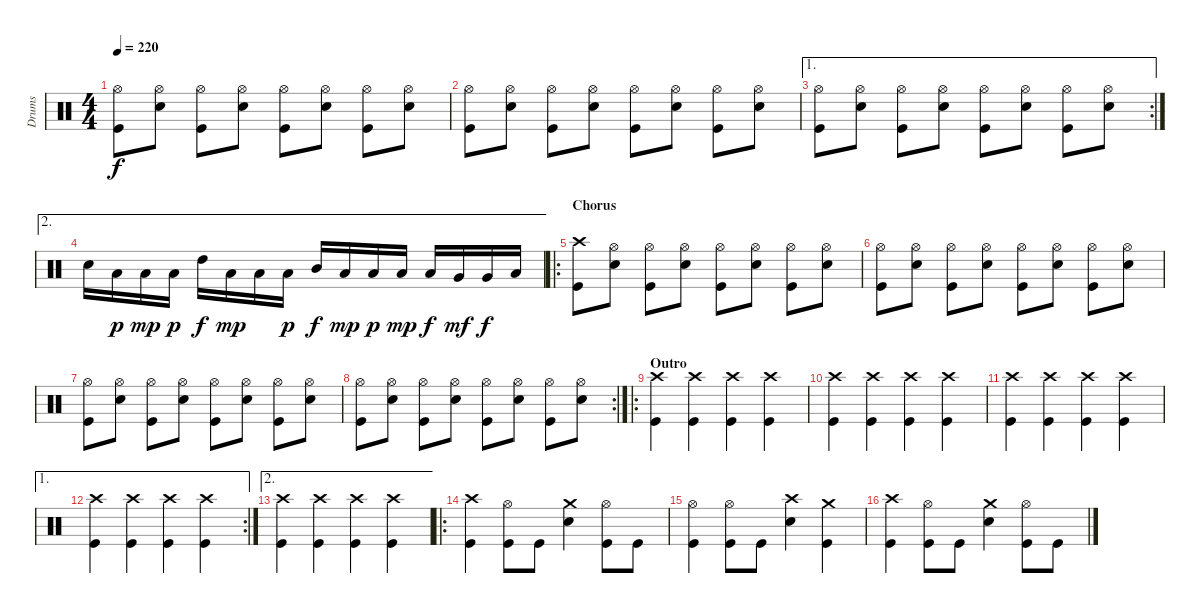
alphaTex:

\track ("Drums" "Drums") {instrument percussion}
\staff {score}
\articulation defaults
\ts (4 4)
\tempo 220
\clef neutral
\ks c
("Hi-Hat (open)" "Kick (hit)").8{dy f} ("Hi-Hat (open)" "Snare (hit) 2").8 ("Hi-Hat (open)" "Kick (hit)").8 ("Hi-Hat (open)" "Snare (hit) 2").8 ("Hi-Hat (open)" "Kick (hit)").8 ("Hi-Hat (open)" "Snare (hit) 2").8 ("Hi-Hat (open)" "Kick (hit)").8 ("Hi-Hat (open)" "Snare (hit) 2").8 |
("Hi-Hat (open)" "Kick (hit)").8 ("Hi-Hat (open)" "Snare (hit) 2").8 ("Hi-Hat (open)" "Kick (hit)").8 ("Hi-Hat (open)" "Snare (hit) 2").8 ("Hi-Hat (open)" "Kick (hit)").8 ("Hi-Hat (open)" "Snare (hit) 2").8 ("Hi-Hat (open)" "Kick (hit)").8 ("Hi-Hat (open)" "Snare (hit) 2").8 |
\ae 1
\rc 2
("Hi-Hat (open)" "Kick (hit)").8 ("Hi-Hat (open)" "Snare (hit) 2").8 ("Hi-Hat (open)" "Kick (hit)").8 ("Hi-Hat (open)" "Snare (hit) 2").8 ("Hi-Hat (open)" "Kick (hit)").8 ("Hi-Hat (open)" "Snare (hit) 2").8 ("Hi-Hat (open)" "Kick (hit)").8 ("Hi-Hat (open)" "Snare (hit) 2").8 |
\ae 2 "Snare (hit) 2".16 "Low Tom (hit)".16{dy p} "Low Tom (hit)".16{dy mp} "Low Tom (hit)".16{dy p} "High Tom (hit)".16{dy f} "Low Tom (hit)".16{dy mp} "Low Tom (hit)".16 "Low Tom (hit)".16{dy p} "Mid Tom (hit)".16{dy f} "Low Tom (hit)".16{dy mp} "Low Tom (hit)".16{dy p} "Low Tom (hit)".16{dy mp} "Low Tom (hit)".16{dy f} "Very Low Tom (hit)".16{dy mf} "Very Low Tom (hit)".16{dy f} "Low Floor Tom (hit)".16
|
\ro
\section ("" "Chorus")
("Crash high (hit)" "Kick (hit)").8 ("Hi-Hat (open)" "Snare (hit) 2").8 ("Hi-Hat (open)" "Kick (hit)").8 ("Hi-Hat (open)" "Snare (hit) 2").8 ("Hi-Hat (open)" "Kick (hit)").8 ("Hi-Hat (open)" "Snare (hit) 2").8 ("Hi-Hat (open)" "Kick (hit)").8 ("Hi-Hat (open)" "Snare (hit) 2").8 |
("Hi-Hat (open)" "Kick (hit)").8 ("Hi-Hat (open)" "Snare (hit) 2").8 ("Hi-Hat (open)" "Kick (hit)").8 ("Hi-Hat (open)" "Snare (hit) 2").8 ("Hi-Hat (open)" "Kick (hit)").8 ("Hi-Hat (open)" "Snare (hit) 2").8 ("Hi-Hat (open)" "Kick (hit)").8 ("Hi-Hat (open)" "Snare (hit) 2").8 |
("Hi-Hat (open)" "Kick (hit)").8 ("Hi-Hat (open)" "Snare (hit) 2").8 ("Hi-Hat (open)" "Kick (hit)").8 ("Hi-Hat (open)" "Snare (hit) 2").8 ("Hi-Hat (open)" "Kick (hit)").8 ("Hi-Hat (open)" "Snare (hit) 2").8 ("Hi-Hat (open)" "Kick (hit)").8 ("Hi-Hat (open)" "Snare (hit) 2").8 |
\rc 2
("Hi-Hat (open)" "Kick (hit)").8 ("Hi-Hat (open)" "Snare (hit) 2").8 ("Hi-Hat (open)" "Kick (hit)").8 ("Hi-Hat (open)" "Snare (hit) 2").8 ("Hi-Hat (open)" "Kick (hit)").8 ("Hi-Hat (open)" "Snare (hit) 2").8 ("Hi-Hat (open)" "Kick (hit)").8 ("Hi-Hat (open)" "Snare (hit) 2").8 |
\ro
\section ("" "Outro")
("Crash high (hit)" "Kick (hit)").4 ("Crash high (hit)" "Kick (hit)").4 ("Crash high (hit)" "Kick (hit)").4 ("Crash high (hit)" "Kick (hit)").4 |
("Crash high (hit)" "Kick (hit)").4 ("Crash high (hit)" "Kick (hit)").4 ("Crash high (hit)" "Kick (hit)").4 ("Crash high (hit)" "Kick (hit)").4 |
("Crash high (hit)" "Kick (hit)").4 ("Crash high (hit)" "Kick (hit)").4 ("Crash high (hit)" "Kick (hit)").4 ("Crash high (hit)" "Kick (hit)").4 |
\ae 1
\rc 2
("Crash high (hit)" "Kick (hit)").4 ("Crash high (hit)" "Kick (hit)").4 ("Crash high (hit)" "Kick (hit)").4 ("Crash high (hit)" "Kick (hit)").4 |
\ae 2
("Crash high (hit)" "Kick (hit)").4 ("Crash high (hit)" "Kick (hit)").4 ("Crash high (hit)" "Kick (hit)").4 ("Crash high (hit)" "Kick (hit)").4 |
\ro
("Crash high (hit)" "Kick (hit)").4 ("Hi-Hat (open)" "Kick (hit)").8 "Kick (hit)".8 ("Crash medium (hit)" "Snare (hit) 2").4 ("Hi-Hat (open)" "Kick (hit)").8 "Kick (hit)".8 |
("Hi-Hat (open)" "Kick (hit)").4 ("Hi-Hat (open)" "Kick (hit)").8 "Kick (hit)".8 ("Crash high (hit)" "Snare (hit) 2").4 ("Crash medium (hit)" "Kick (hit)").4 |
("Crash high (hit)" "Kick (hit)").4 ("Hi-Hat (open)" "Kick (hit)").8 "Kick (hit)".8 ("Crash medium (hit)" "Snare (hit) 2").4 ("Hi-Hat (open)" "Kick (hit)").8 "Kick (hit)".8
